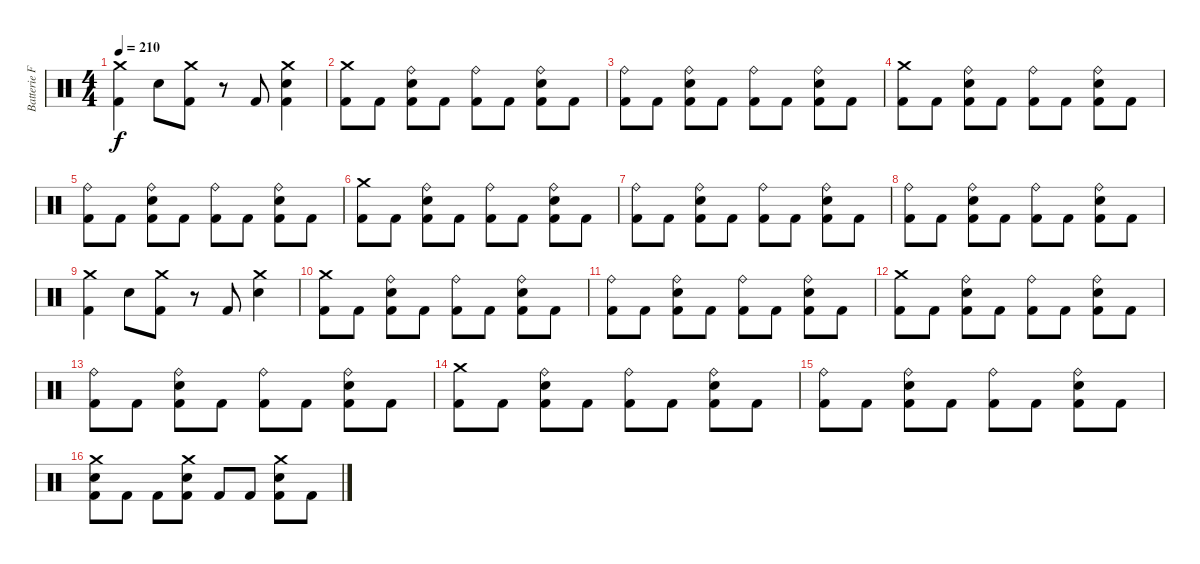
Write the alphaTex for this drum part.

\track ("Batterie Franck" "Batterie F") {instrument percussion}
\staff {score}
\articulation defaults
\ts (4 4)
\tempo 210
\clef neutral
\ks c
("Crash medium (hit)" "Kick (hit) 2").4{dy f} "Snare (hit) 2".8 ("Crash medium (hit)" "Kick (hit) 2").8 r.8 "Kick (hit) 2".8 ("Crash medium (hit)" "Snare (hit) 2" "Kick (hit) 2").4 |
("Crash medium (hit)" "Kick (hit) 2").8 "Kick (hit) 2".8 ("Ride (bell)" "Snare (hit) 2" "Kick (hit) 2").8 "Kick (hit) 2".8 ("Ride (bell)" "Kick (hit) 2").8 "Kick (hit) 2".8 ("Ride (bell)" "Snare (hit) 2" "Kick (hit) 2").8 "Kick (hit) 2".8 |
("Ride (bell)" "Kick (hit) 2").8 "Kick (hit) 2".8 ("Ride (bell)" "Snare (hit) 2" "Kick (hit) 2").8 "Kick (hit) 2".8 ("Ride (bell)" "Kick (hit) 2").8 "Kick (hit) 2".8 ("Ride (bell)" "Snare (hit) 2" "Kick (hit) 2").8 "Kick (hit) 2".8 |
("Crash medium (hit)" "Kick (hit) 2").8 "Kick (hit) 2".8 ("Ride (bell)" "Snare (hit) 2" "Kick (hit) 2").8 "Kick (hit) 2".8 ("Ride (bell)" "Kick (hit) 2").8 "Kick (hit) 2".8 ("Ride (bell)" "Snare (hit) 2" "Kick (hit) 2").8 "Kick (hit) 2".8 |
("Ride (bell)" "Kick (hit) 2").8 "Kick (hit) 2".8 ("Ride (bell)" "Snare (hit) 2" "Kick (hit) 2").8 "Kick (hit) 2".8 ("Ride (bell)" "Kick (hit) 2").8 "Kick (hit) 2".8 ("Ride (bell)" "Snare (hit) 2" "Kick (hit) 2").8 "Kick (hit) 2".8 |
("Crash medium (hit)" "Kick (hit) 2").8 "Kick (hit) 2".8 ("Ride (bell)" "Snare (hit) 2" "Kick (hit) 2").8 "Kick (hit) 2".8 ("Ride (bell)" "Kick (hit) 2").8 "Kick (hit) 2".8 ("Ride (bell)" "Snare (hit) 2" "Kick (hit) 2").8 "Kick (hit) 2".8 |
("Ride (bell)" "Kick (hit) 2").8 "Kick (hit) 2".8 ("Ride (bell)" "Snare (hit) 2" "Kick (hit) 2").8 "Kick (hit) 2".8 ("Ride (bell)" "Kick (hit) 2").8 "Kick (hit) 2".8 ("Ride (bell)" "Snare (hit) 2" "Kick (hit) 2").8 "Kick (hit) 2".8 |
("Ride (bell)" "Kick (hit) 2").8 "Kick (hit) 2".8 ("Ride (bell)" "Snare (hit) 2" "Kick (hit) 2").8 "Kick (hit) 2".8 ("Ride (bell)" "Kick (hit) 2").8 "Kick (hit) 2".8 ("Ride (bell)" "Snare (hit) 2" "Kick (hit) 2").8 "Kick (hit) 2".8 |
("Crash medium (hit)" "Kick (hit) 2").4 "Snare (hit) 2".8 ("Crash medium (hit)" "Kick (hit) 2").8 r.8 "Kick (hit) 2".8 ("Crash medium (hit)" "Snare (hit) 2").4 |
("Crash medium (hit)" "Kick (hit) 2").8 "Kick (hit) 2".8 ("Ride (bell)" "Snare (hit) 2" "Kick (hit) 2").8 "Kick (hit) 2".8 ("Ride (bell)" "Kick (hit) 2").8 "Kick (hit) 2".8 ("Ride (bell)" "Snare (hit) 2" "Kick (hit) 2").8 "Kick (hit) 2".8 |
("Ride (bell)" "Kick (hit) 2").8 "Kick (hit) 2".8 ("Ride (bell)" "Snare (hit) 2" "Kick (hit) 2").8 "Kick (hit) 2".8 ("Ride (bell)" "Kick (hit) 2").8 "Kick (hit) 2".8 ("Ride (bell)" "Snare (hit) 2" "Kick (hit) 2").8 "Kick (hit) 2".8 |
("Crash medium (hit)" "Kick (hit) 2").8 "Kick (hit) 2".8 ("Ride (bell)" "Snare (hit) 2" "Kick (hit) 2").8 "Kick (hit) 2".8 ("Ride (bell)" "Kick (hit) 2").8 "Kick (hit) 2".8 ("Ride (bell)" "Snare (hit) 2" "Kick (hit) 2").8 "Kick (hit) 2".8 |
("Ride (bell)" "Kick (hit) 2").8 "Kick (hit) 2".8 ("Ride (bell)" "Snare (hit) 2" "Kick (hit) 2").8 "Kick (hit) 2".8 ("Ride (bell)" "Kick (hit) 2").8 "Kick (hit) 2".8 ("Ride (bell)" "Snare (hit) 2" "Kick (hit) 2").8 "Kick (hit) 2".8 |
("Crash medium (hit)" "Kick (hit) 2").8 "Kick (hit) 2".8 ("Ride (bell)" "Snare (hit) 2" "Kick (hit) 2").8 "Kick (hit) 2".8 ("Ride (bell)" "Kick (hit) 2").8 "Kick (hit) 2".8 ("Ride (bell)" "Snare (hit) 2" "Kick (hit) 2").8 "Kick (hit) 2".8 |
("Ride (bell)" "Kick (hit) 2").8 "Kick (hit) 2".8 ("Ride (bell)" "Snare (hit) 2" "Kick (hit) 2").8 "Kick (hit) 2".8 ("Ride (bell)" "Kick (hit) 2").8 "Kick (hit) 2".8 ("Ride (bell)" "Snare (hit) 2" "Kick (hit) 2").8 "Kick (hit) 2".8 |
("Crash medium (hit)" "Snare (hit) 2" "Kick (hit) 2").8 "Kick (hit) 2".8 "Kick (hit) 2".8 ("Crash medium (hit)" "Snare (hit) 2" "Kick (hit) 2").8 "Kick (hit) 2".8 "Kick (hit) 2".8 ("Crash medium (hit)" "Snare (hit) 2" "Kick (hit) 2").8 "Kick (hit) 2".8
